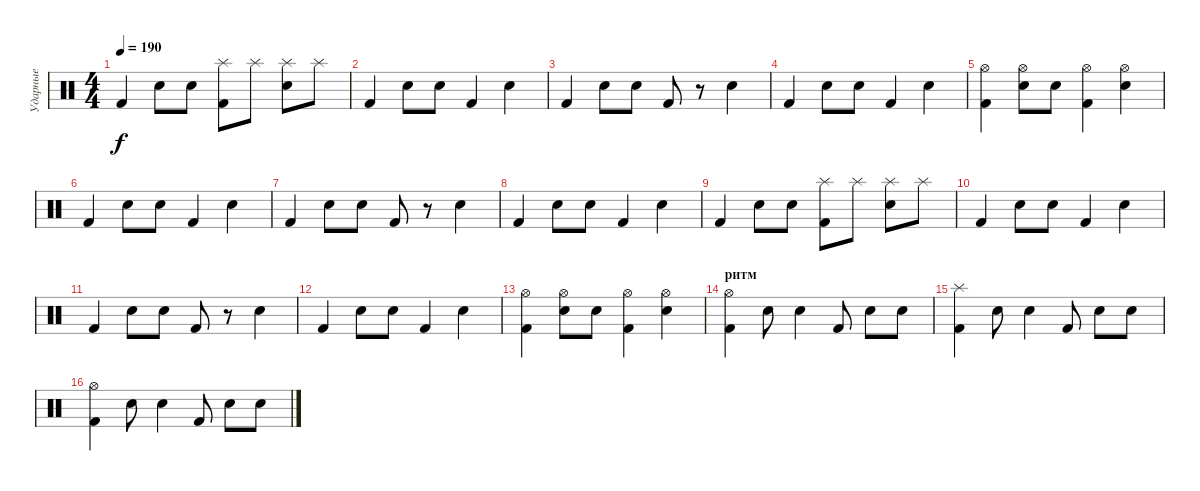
\track ("Ударные" "Ударные") {instrument percussion}
\staff {score}
\articulation defaults
\ts (4 4)
\tempo 190
\clef neutral
\ks c "Kick (hit) 2".4{dy f} "Electric Snare (hit)".8 "Electric Snare (hit)".8
("Splash (hit)" "Kick (hit) 2").8 "Splash (hit)".8 ("Splash (hit)" "Electric Snare (hit)").8 "Splash (hit)".8 |
"Kick (hit) 2".4 "Electric Snare (hit)".8 "Electric Snare (hit)".8 "Kick (hit) 2".4 "Electric Snare (hit)".4 |
"Kick (hit) 2".4 "Electric Snare (hit)".8 "Electric Snare (hit)".8 "Kick (hit) 2".8 r.8 "Electric Snare (hit)".4 |
"Kick (hit) 2".4 "Electric Snare (hit)".8 "Electric Snare (hit)".8 "Kick (hit) 2".4 "Electric Snare (hit)".4 |
("Hi-Hat (open)" "Kick (hit) 2").4 ("Hi-Hat (open)" "Electric Snare (hit)").8 "Electric Snare (hit)".8 ("Hi-Hat (open)" "Kick (hit) 2").4 ("Hi-Hat (open)" "Electric Snare (hit)").4 |
"Kick (hit) 2".4 "Electric Snare (hit)".8 "Electric Snare (hit)".8 "Kick (hit) 2".4 "Electric Snare (hit)".4 |
"Kick (hit) 2".4 "Electric Snare (hit)".8 "Electric Snare (hit)".8 "Kick (hit) 2".8 r.8 "Electric Snare (hit)".4 |
"Kick (hit) 2".4 "Electric Snare (hit)".8 "Electric Snare (hit)".8 "Kick (hit) 2".4 "Electric Snare (hit)".4 |
"Kick (hit) 2".4 "Electric Snare (hit)".8 "Electric Snare (hit)".8 ("Splash (hit)" "Kick (hit) 2").8 "Splash (hit)".8 ("Splash (hit)" "Electric Snare (hit)").8 "Splash (hit)".8 |
"Kick (hit) 2".4 "Electric Snare (hit)".8 "Electric Snare (hit)".8 "Kick (hit) 2".4 "Electric Snare (hit)".4 |
"Kick (hit) 2".4 "Electric Snare (hit)".8 "Electric Snare (hit)".8 "Kick (hit) 2".8 r.8 "Electric Snare (hit)".4 |
"Kick (hit) 2".4 "Electric Snare (hit)".8 "Electric Snare (hit)".8 "Kick (hit) 2".4 "Electric Snare (hit)".4 |
("Hi-Hat (open)" "Kick (hit) 2").4 ("Hi-Hat (open)" "Electric Snare (hit)").8 "Electric Snare (hit)".8 ("Hi-Hat (open)" "Kick (hit) 2").4 ("Hi-Hat (open)" "Electric Snare (hit)").4 |
\section ("" "ритм")
("Hi-Hat (open)" "Kick (hit) 2").4 "Electric Snare (hit)".8 "Electric Snare (hit)".4 "Kick (hit) 2".8 "Electric Snare (hit)".8 "Electric Snare (hit)".8 |
("Splash (hit)" "Kick (hit) 2").4 "Electric Snare (hit)".8 "Electric Snare (hit)".4 "Kick (hit) 2".8 "Electric Snare (hit)".8 "Electric Snare (hit)".8 |
("Hi-Hat (open)" "Kick (hit) 2").4 "Electric Snare (hit)".8 "Electric Snare (hit)".4 "Kick (hit) 2".8 "Electric Snare (hit)".8 "Electric Snare (hit)".8
